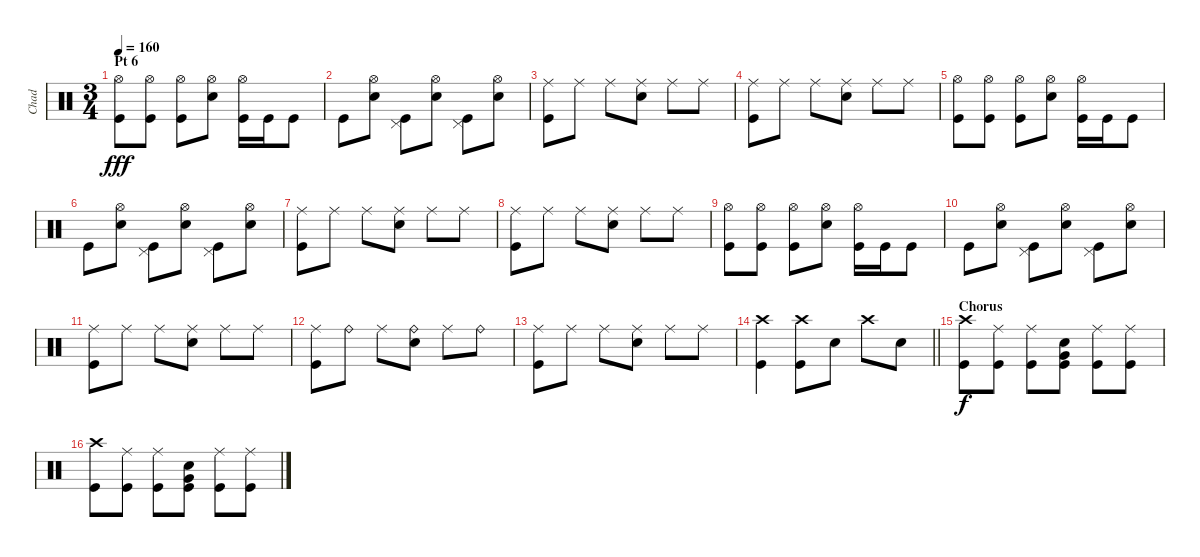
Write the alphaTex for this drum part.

\track ("Chad" "Chad") {instrument percussion}
\staff {score}
\articulation defaults
\ts (3 4)
\section ("" "Pt 6")
\tempo 160
\clef neutral
\ks c
("Kick (hit)" "Hi-Hat (open)").8{dy fff} ("Kick (hit)" "Hi-Hat (open)").8 ("Kick (hit)" "Hi-Hat (open)").8 ("Snare (hit) 2" "Hi-Hat (open)").8 ("Kick (hit)" "Hi-Hat (open)").16 "Kick (hit)".16 "Kick (hit)".8 |
"Kick (hit)".8 ("Snare (hit) 2" "Hi-Hat (open)").8 ("Kick (hit)" "Pedal Hi-Hat (hit)").8 ("Snare (hit) 2" "Hi-Hat (open)").8 ("Kick (hit)" "Pedal Hi-Hat (hit)").8 ("Hi-Hat (open)" "Snare (hit) 2").8 |
("Kick (hit)" "Ride (middle)").8 "Ride (middle)".8 "Ride (middle)".8 ("Snare (hit) 2" "Ride (middle)").8 "Ride (middle)".8 "Ride (middle)".8 |
("Kick (hit)" "Ride (middle)").8 "Ride (middle)".8 "Ride (middle)".8 ("Ride (middle)" "Snare (hit) 2").8 "Ride (middle)".8 "Ride (middle)".8 |
("Kick (hit)" "Hi-Hat (open)").8 ("Kick (hit)" "Hi-Hat (open)").8 ("Kick (hit)" "Hi-Hat (open)").8 ("Snare (hit) 2" "Hi-Hat (open)").8 ("Kick (hit)" "Hi-Hat (open)").16 "Kick (hit)".16 "Kick (hit)".8 |
"Kick (hit)".8 ("Snare (hit) 2" "Hi-Hat (open)").8 ("Kick (hit)" "Pedal Hi-Hat (hit)").8 ("Snare (hit) 2" "Hi-Hat (open)").8 ("Kick (hit)" "Pedal Hi-Hat (hit)").8 ("Hi-Hat (open)" "Snare (hit) 2").8 |
("Kick (hit)" "Ride (middle)").8 "Ride (middle)".8 "Ride (middle)".8 ("Snare (hit) 2" "Ride (middle)").8 "Ride (middle)".8 "Ride (middle)".8 |
("Kick (hit)" "Ride (middle)").8 "Ride (middle)".8 "Ride (middle)".8 ("Snare (hit) 2" "Ride (middle)").8 "Ride (middle)".8 "Ride (middle)".8 |
("Kick (hit)" "Hi-Hat (open)").8 ("Kick (hit)" "Hi-Hat (open)").8 ("Kick (hit)" "Hi-Hat (open)").8 ("Snare (hit) 2" "Hi-Hat (open)").8 ("Kick (hit)" "Hi-Hat (open)").16 "Kick (hit)".16 "Kick (hit)".8 |
"Kick (hit)".8 ("Snare (hit) 2" "Hi-Hat (open)").8 ("Kick (hit)" "Pedal Hi-Hat (hit)").8 ("Snare (hit) 2" "Hi-Hat (open)").8 ("Kick (hit)" "Pedal Hi-Hat (hit)").8 ("Hi-Hat (open)" "Snare (hit) 2").8 |
("Kick (hit)" "Ride (middle)").8 "Ride (middle)".8 "Ride (middle)".8 ("Snare (hit) 2" "Ride (middle)").8 "Ride (middle)".8 "Ride (middle)".8 |
("Kick (hit)" "Ride (middle)").8 "Ride (bell)".8 "Ride (middle)".8 ("Snare (hit) 2" "Ride (bell)").8 "Ride (middle)".8 "Ride (bell)".8 |
("Kick (hit)" "Ride (middle)").8 "Ride (middle)".8 "Ride (middle)".8 ("Snare (hit) 2" "Ride (middle)").8 "Ride (middle)".8 "Ride (middle)".8 |
\barLineRight lightlight
("Crash high (hit)" "Kick (hit)").4 ("Crash high (hit)" "Kick (hit)").8 "Snare (hit) 2".8 "Crash high (hit)".8 "Snare (hit) 2".8 |
\section ("" "Chorus")
("Kick (hit)" "Crash high (hit)").8{dy f} ("Kick (hit)" "Ride (middle)").8 ("Kick (hit)" "Ride (middle)").8 ("Kick (hit)" "Snare (hit) 2" "Very Low Tom (hit)").8 ("Kick (hit)" "Ride (middle)").8 ("Kick (hit)" "Ride (middle)").8 |
("Kick (hit)" "Crash high (hit)").8 ("Kick (hit)" "Ride (middle)").8 ("Kick (hit)" "Ride (middle)").8 ("Kick (hit)" "Snare (hit) 2" "Very Low Tom (hit)").8 ("Kick (hit)" "Ride (middle)").8 ("Ride (middle)" "Kick (hit)").8
